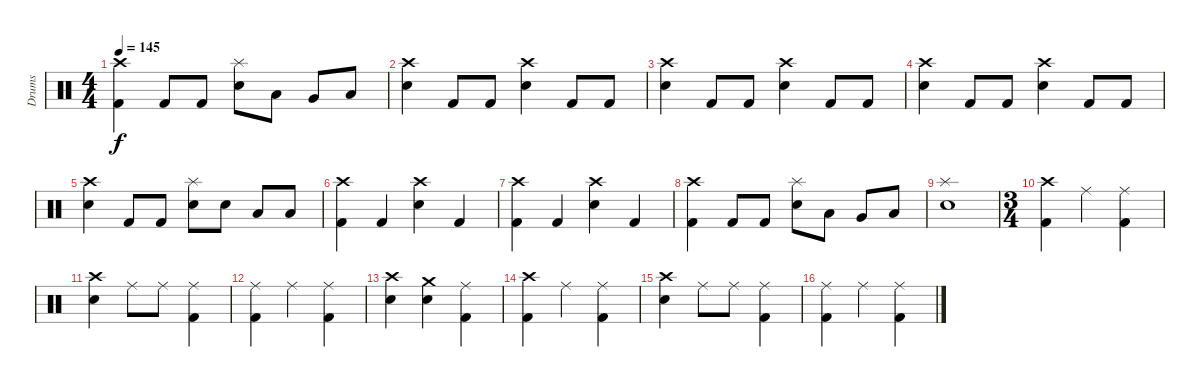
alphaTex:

\track ("Drums" "Drums") {instrument percussion}
\staff {score}
\articulation defaults
\ts (4 4)
\tempo 145
\clef neutral
\ks c
("Crash high (hit)" "Kick (hit) 2").4{dy f} "Kick (hit) 2".8 "Kick (hit) 2".8 ("Splash (hit)" "Snare (hit) 2").8 "Low Tom (hit)".8 "Very Low Tom (hit)".8 "Low Floor Tom (hit)".8 |
("Crash high (hit)" "Snare (hit) 2").4 "Kick (hit) 2".8 "Kick (hit) 2".8 ("Crash high (hit)" "Snare (hit) 2").4 "Kick (hit) 2".8 "Kick (hit) 2".8 |
("Crash high (hit)" "Snare (hit) 2").4 "Kick (hit) 2".8 "Kick (hit) 2".8 ("Crash high (hit)" "Snare (hit) 2").4 "Kick (hit) 2".8 "Kick (hit) 2".8 |
("Crash high (hit)" "Snare (hit) 2").4 "Kick (hit) 2".8 "Kick (hit) 2".8 ("Crash high (hit)" "Snare (hit) 2").4 "Kick (hit) 2".8 "Kick (hit) 2".8 |
("Crash high (hit)" "Snare (hit) 2").4 "Kick (hit) 2".8 "Kick (hit) 2".8 ("Splash (hit)" "Snare (hit) 2").8 "Snare (hit) 2".8 "Low Tom (hit)".8 "Low Tom (hit)".8 |
("Crash high (hit)" "Kick (hit) 2").4 "Kick (hit) 2".4 ("Crash high (hit)" "Snare (hit) 2").4 "Kick (hit) 2".4 |
("Crash high (hit)" "Kick (hit) 2").4 "Kick (hit) 2".4 ("Crash high (hit)" "Snare (hit) 2").4 "Kick (hit) 2".4 |
("Crash high (hit)" "Kick (hit) 2").4 "Kick (hit) 2".8 "Kick (hit) 2".8 ("Splash (hit)" "Snare (hit) 2").8 "Low Tom (hit)".8 "Very Low Tom (hit)".8 "Low Floor Tom (hit)".8 |
("Splash (hit)" "Snare (hit) 2").1 |
\ts (3 4)
("Crash high (hit)" "Kick (hit) 2").4 "Ride (middle)".4 ("Ride (middle)" "Kick (hit) 2").4 |
("Crash high (hit)" "Snare (hit) 2").4 "Ride (middle)".8 "Ride (middle)".8 ("Ride (middle)" "Kick (hit) 2").4 |
("Ride (middle)" "Kick (hit) 2").4 "Ride (middle)".4 ("Ride (middle)" "Kick (hit) 2").4 |
("Crash high (hit)" "Snare (hit) 2").4 ("Crash medium (hit)" "Snare (hit) 2").4 ("Ride (middle)" "Kick (hit) 2").4 |
("Crash high (hit)" "Kick (hit) 2").4 "Ride (middle)".4 ("Ride (middle)" "Kick (hit) 2").4 |
("Crash high (hit)" "Snare (hit) 2").4 "Ride (middle)".8 "Ride (middle)".8 ("Ride (middle)" "Kick (hit) 2").4 |
("Ride (middle)" "Kick (hit) 2").4 "Ride (middle)".4 ("Ride (middle)" "Kick (hit) 2").4
